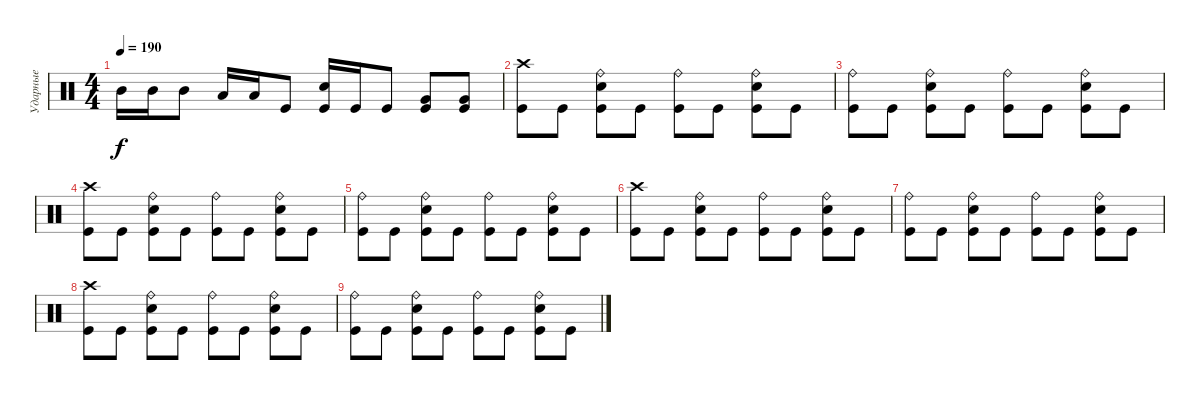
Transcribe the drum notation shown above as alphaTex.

\track ("Ударные" "Ударные") {instrument percussion}
\staff {score}
\articulation defaults
\ts (4 4)
\tempo 190
\clef neutral
\ks c "Mid Tom (hit)".16{dy f} "Mid Tom (hit)".16 "Mid Tom (hit)".8 "Low Tom (hit)".16 "Low Tom (hit)".16 "Kick (hit)".8
("Electric Snare (hit)" "Kick (hit)").16 "Kick (hit)".16 "Kick (hit)".8 ("Very Low Tom (hit)" "Kick (hit)").8 ("Very Low Tom (hit)" "Kick (hit)").8 |
("Crash high (hit)" "Kick (hit)").8 "Kick (hit)".8 ("Ride (bell)" "Electric Snare (hit)" "Kick (hit)").8 "Kick (hit)".8 ("Ride (bell)" "Kick (hit)").8 "Kick (hit)".8 ("Ride (bell)" "Electric Snare (hit)" "Kick (hit)").8 "Kick (hit)".8 |
("Ride (bell)" "Kick (hit)").8 "Kick (hit)".8 ("Ride (bell)" "Electric Snare (hit)" "Kick (hit)").8 "Kick (hit)".8 ("Ride (bell)" "Kick (hit)").8 "Kick (hit)".8 ("Ride (bell)" "Electric Snare (hit)" "Kick (hit)").8 "Kick (hit)".8 |
("Crash high (hit)" "Kick (hit)").8 "Kick (hit)".8 ("Ride (bell)" "Electric Snare (hit)" "Kick (hit)").8 "Kick (hit)".8 ("Ride (bell)" "Kick (hit)").8 "Kick (hit)".8 ("Ride (bell)" "Electric Snare (hit)" "Kick (hit)").8 "Kick (hit)".8 |
("Ride (bell)" "Kick (hit)").8 "Kick (hit)".8 ("Ride (bell)" "Electric Snare (hit)" "Kick (hit)").8 "Kick (hit)".8 ("Ride (bell)" "Kick (hit)").8 "Kick (hit)".8 ("Ride (bell)" "Electric Snare (hit)" "Kick (hit)").8 "Kick (hit)".8 |
("Crash high (hit)" "Kick (hit)").8 "Kick (hit)".8 ("Ride (bell)" "Electric Snare (hit)" "Kick (hit)").8 "Kick (hit)".8 ("Ride (bell)" "Kick (hit)").8 "Kick (hit)".8 ("Ride (bell)" "Electric Snare (hit)" "Kick (hit)").8 "Kick (hit)".8 |
("Ride (bell)" "Kick (hit)").8 "Kick (hit)".8 ("Ride (bell)" "Electric Snare (hit)" "Kick (hit)").8 "Kick (hit)".8 ("Ride (bell)" "Kick (hit)").8 "Kick (hit)".8 ("Ride (bell)" "Electric Snare (hit)" "Kick (hit)").8 "Kick (hit)".8 |
("Crash high (hit)" "Kick (hit)").8 "Kick (hit)".8 ("Ride (bell)" "Electric Snare (hit)" "Kick (hit)").8 "Kick (hit)".8 ("Ride (bell)" "Kick (hit)").8 "Kick (hit)".8 ("Ride (bell)" "Electric Snare (hit)" "Kick (hit)").8 "Kick (hit)".8 |
("Ride (bell)" "Kick (hit)").8 "Kick (hit)".8 ("Ride (bell)" "Electric Snare (hit)" "Kick (hit)").8 "Kick (hit)".8 ("Ride (bell)" "Kick (hit)").8 "Kick (hit)".8 ("Ride (bell)" "Electric Snare (hit)" "Kick (hit)").8 "Kick (hit)".8
